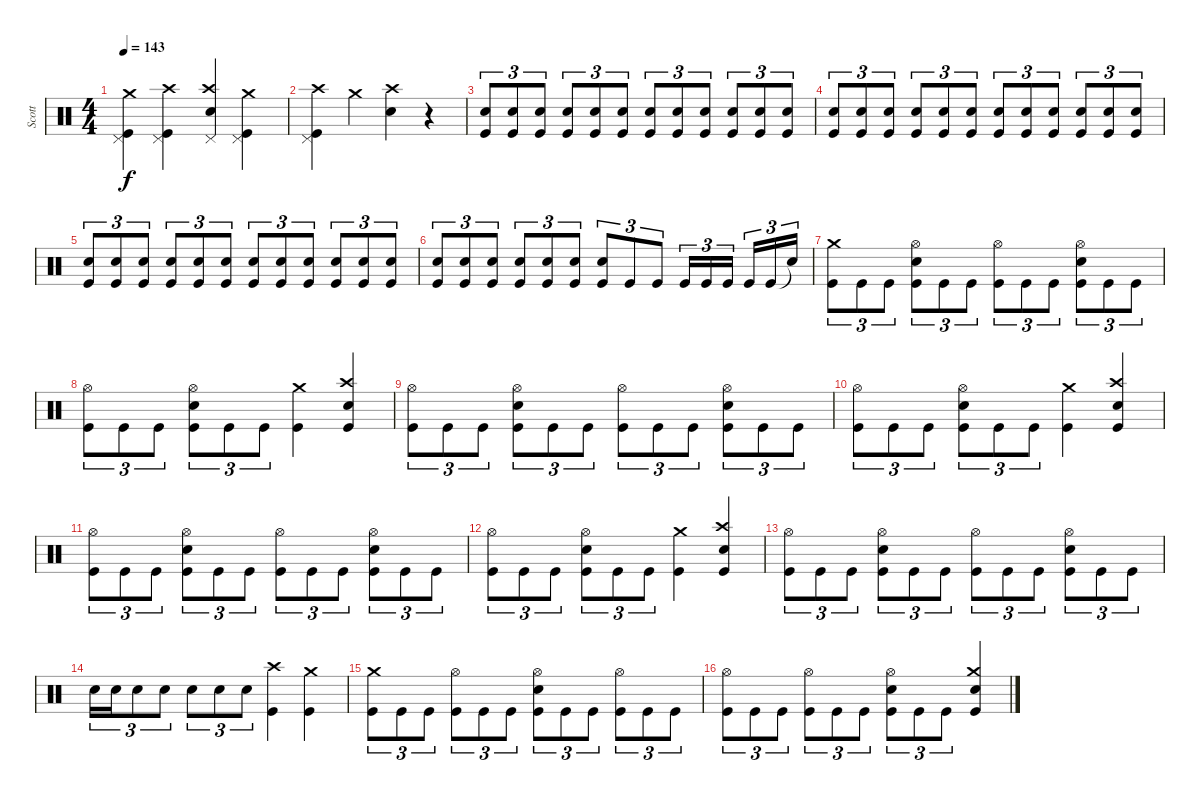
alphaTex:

\track ("Scott" "Scott") {instrument percussion}
\staff {score}
\articulation defaults
\ts (4 4)
\tempo 143
\clef neutral
\ks c
("Kick (hit)" "Pedal Hi-Hat (hit)" "Crash medium (hit)").4{dy f} ("Kick (hit)" "Pedal Hi-Hat (hit)" "Crash high (hit)").4 ("Snare (hit) 2" "Pedal Hi-Hat (hit)" "Crash high (hit)").4 ("Kick (hit)" "Pedal Hi-Hat (hit)" "Crash medium (hit)").4 |
("Kick (hit)" "Pedal Hi-Hat (hit)" "Crash high (hit)").4 "Crash medium (hit)".4 ("Snare (hit) 2" "Crash high (hit)").4 r.4 |
("Kick (hit)" "Snare (hit) 2").8{tu (3 2)} ("Kick (hit)" "Snare (hit) 2").8{tu (3 2)} ("Kick (hit)" "Snare (hit) 2").8{tu (3 2)} ("Kick (hit)" "Snare (hit) 2").8{tu (3 2)} ("Kick (hit)" "Snare (hit) 2").8{tu (3 2)} ("Kick (hit)" "Snare (hit) 2").8{tu (3 2)} ("Kick (hit)" "Snare (hit) 2").8{tu (3 2)} ("Kick (hit)" "Snare (hit) 2").8{tu (3 2)} ("Kick (hit)" "Snare (hit) 2").8{tu (3 2)} ("Kick (hit)" "Snare (hit) 2").8{tu (3 2)} ("Kick (hit)" "Snare (hit) 2").8{tu (3 2)} ("Kick (hit)" "Snare (hit) 2").8{tu (3 2)} |
("Kick (hit)" "Snare (hit) 2").8{tu (3 2)} ("Kick (hit)" "Snare (hit) 2").8{tu (3 2)} ("Kick (hit)" "Snare (hit) 2").8{tu (3 2)} ("Kick (hit)" "Snare (hit) 2").8{tu (3 2)} ("Kick (hit)" "Snare (hit) 2").8{tu (3 2)} ("Kick (hit)" "Snare (hit) 2").8{tu (3 2)} ("Kick (hit)" "Snare (hit) 2").8{tu (3 2)} ("Kick (hit)" "Snare (hit) 2").8{tu (3 2)} ("Kick (hit)" "Snare (hit) 2").8{tu (3 2)} ("Kick (hit)" "Snare (hit) 2").8{tu (3 2)} ("Kick (hit)" "Snare (hit) 2").8{tu (3 2)} ("Kick (hit)" "Snare (hit) 2").8{tu (3 2)} |
("Kick (hit)" "Snare (hit) 2").8{tu (3 2)} ("Kick (hit)" "Snare (hit) 2").8{tu (3 2)} ("Kick (hit)" "Snare (hit) 2").8{tu (3 2)} ("Kick (hit)" "Snare (hit) 2").8{tu (3 2)} ("Kick (hit)" "Snare (hit) 2").8{tu (3 2)} ("Kick (hit)" "Snare (hit) 2").8{tu (3 2)} ("Kick (hit)" "Snare (hit) 2").8{tu (3 2)} ("Kick (hit)" "Snare (hit) 2").8{tu (3 2)} ("Kick (hit)" "Snare (hit) 2").8{tu (3 2)} ("Kick (hit)" "Snare (hit) 2").8{tu (3 2)} ("Kick (hit)" "Snare (hit) 2").8{tu (3 2)} ("Kick (hit)" "Snare (hit) 2").8{tu (3 2)} |
("Kick (hit)" "Snare (hit) 2").8{tu (3 2)} ("Kick (hit)" "Snare (hit) 2").8{tu (3 2)} ("Kick (hit)" "Snare (hit) 2").8{tu (3 2)} ("Kick (hit)" "Snare (hit) 2").8{tu (3 2)} ("Kick (hit)" "Snare (hit) 2").8{tu (3 2)} ("Kick (hit)" "Snare (hit) 2").8{tu (3 2)} ("Kick (hit)" "Snare (hit) 2").8{tu (3 2)} "Kick (hit)".8{tu (3 2)} "Kick (hit)".8{tu (3 2)} "Kick (hit)".16{tu (3 2)} "Kick (hit)".16{tu (3 2)} "Kick (hit)".16{tu (3 2)} "Kick (hit)".16{tu (3 2)} "Kick (hit)".16{tu (3 2)} "Snare (hit)"{t}.16{tu (3 2)} |
("Kick (hit)" "Crash medium (hit)").8{tu (3 2)} "Kick (hit)".8{tu (3 2)} "Kick (hit)".8{tu (3 2)} ("Kick (hit)" "Snare (hit) 2" "Hi-Hat (open)").8{tu (3 2)} "Kick (hit)".8{tu (3 2)} "Kick (hit)".8{tu (3 2)} ("Kick (hit)" "Hi-Hat (open)").8{tu (3 2)} "Kick (hit)".8{tu (3 2)} "Kick (hit)".8{tu (3 2)} ("Kick (hit)" "Snare (hit) 2" "Hi-Hat (open)").8{tu (3 2)} "Kick (hit)".8{tu (3 2)} "Kick (hit)".8{tu (3 2)} |
("Kick (hit)" "Hi-Hat (open)").8{tu (3 2)} "Kick (hit)".8{tu (3 2)} "Kick (hit)".8{tu (3 2)} ("Kick (hit)" "Snare (hit) 2" "Hi-Hat (open)").8{tu (3 2)} "Kick (hit)".8{tu (3 2)} "Kick (hit)".8{tu (3 2)} ("Kick (hit)" "Crash medium (hit)").4 ("Kick (hit)" "Snare (hit) 2" "Crash high (hit)").4 |
("Kick (hit)" "Hi-Hat (open)").8{tu (3 2)} "Kick (hit)".8{tu (3 2)} "Kick (hit)".8{tu (3 2)} ("Kick (hit)" "Snare (hit) 2" "Hi-Hat (open)").8{tu (3 2)} "Kick (hit)".8{tu (3 2)} "Kick (hit)".8{tu (3 2)} ("Kick (hit)" "Hi-Hat (open)").8{tu (3 2)} "Kick (hit)".8{tu (3 2)} "Kick (hit)".8{tu (3 2)} ("Kick (hit)" "Snare (hit) 2" "Hi-Hat (open)").8{tu (3 2)} "Kick (hit)".8{tu (3 2)} "Kick (hit)".8{tu (3 2)} |
("Kick (hit)" "Hi-Hat (open)").8{tu (3 2)} "Kick (hit)".8{tu (3 2)} "Kick (hit)".8{tu (3 2)} ("Kick (hit)" "Snare (hit) 2" "Hi-Hat (open)").8{tu (3 2)} "Kick (hit)".8{tu (3 2)} "Kick (hit)".8{tu (3 2)} ("Kick (hit)" "Crash medium (hit)").4 ("Kick (hit)" "Snare (hit) 2" "Crash high (hit)").4 |
("Kick (hit)" "Hi-Hat (open)").8{tu (3 2)} "Kick (hit)".8{tu (3 2)} "Kick (hit)".8{tu (3 2)} ("Kick (hit)" "Snare (hit) 2" "Hi-Hat (open)").8{tu (3 2)} "Kick (hit)".8{tu (3 2)} "Kick (hit)".8{tu (3 2)} ("Kick (hit)" "Hi-Hat (open)").8{tu (3 2)} "Kick (hit)".8{tu (3 2)} "Kick (hit)".8{tu (3 2)} ("Kick (hit)" "Snare (hit) 2" "Hi-Hat (open)").8{tu (3 2)} "Kick (hit)".8{tu (3 2)} "Kick (hit)".8{tu (3 2)} |
("Kick (hit)" "Hi-Hat (open)").8{tu (3 2)} "Kick (hit)".8{tu (3 2)} "Kick (hit)".8{tu (3 2)} ("Kick (hit)" "Snare (hit) 2" "Hi-Hat (open)").8{tu (3 2)} "Kick (hit)".8{tu (3 2)} "Kick (hit)".8{tu (3 2)} ("Kick (hit)" "Crash medium (hit)").4 ("Kick (hit)" "Snare (hit) 2" "Crash high (hit)").4 |
("Kick (hit)" "Hi-Hat (open)").8{tu (3 2)} "Kick (hit)".8{tu (3 2)} "Kick (hit)".8{tu (3 2)} ("Kick (hit)" "Snare (hit) 2" "Hi-Hat (open)").8{tu (3 2)} "Kick (hit)".8{tu (3 2)} "Kick (hit)".8{tu (3 2)} ("Kick (hit)" "Hi-Hat (open)").8{tu (3 2)} "Kick (hit)".8{tu (3 2)} "Kick (hit)".8{tu (3 2)} ("Kick (hit)" "Snare (hit) 2" "Hi-Hat (open)").8{tu (3 2)} "Kick (hit)".8{tu (3 2)} "Kick (hit)".8{tu (3 2)} |
"Snare (hit) 2".16{tu (3 2)} "Snare (hit) 2".16{tu (3 2)} "Snare (hit) 2".8{tu (3 2)} "Snare (hit) 2".8{tu (3 2)} "Snare (hit) 2".8{tu (3 2)} "Snare (hit) 2".8{tu (3 2)} "Snare (hit) 2".8{tu (3 2)} ("Kick (hit)" "Crash high (hit)").4 ("Kick (hit)" "Crash medium (hit)").4 |
("Kick (hit)" "Crash medium (hit)").8{tu (3 2)} "Kick (hit)".8{tu (3 2)} "Kick (hit)".8{tu (3 2)} ("Kick (hit)" "Hi-Hat (open)").8{tu (3 2)} "Kick (hit)".8{tu (3 2)} "Kick (hit)".8{tu (3 2)} ("Kick (hit)" "Snare (hit) 2" "Hi-Hat (open)").8{tu (3 2)} "Kick (hit)".8{tu (3 2)} "Kick (hit)".8{tu (3 2)} ("Kick (hit)" "Hi-Hat (open)").8{tu (3 2)} "Kick (hit)".8{tu (3 2)} "Kick (hit)".8{tu (3 2)} |
("Kick (hit)" "Hi-Hat (open)").8{tu (3 2)} "Kick (hit)".8{tu (3 2)} "Kick (hit)".8{tu (3 2)} ("Kick (hit)" "Hi-Hat (open)").8{tu (3 2)} "Kick (hit)".8{tu (3 2)} "Kick (hit)".8{tu (3 2)} ("Kick (hit)" "Snare (hit) 2" "Hi-Hat (open)").8{tu (3 2)} "Kick (hit)".8{tu (3 2)} "Kick (hit)".8{tu (3 2)} ("Kick (hit)" "Snare (hit) 2" "Crash medium (hit)").4
